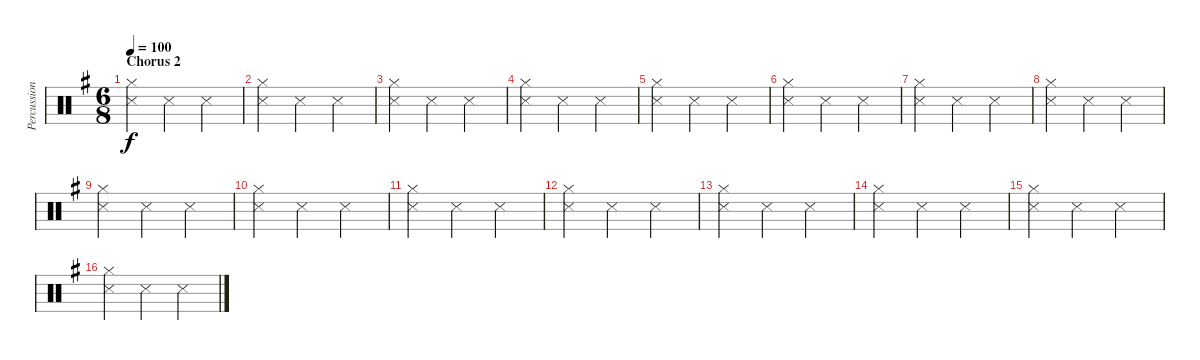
\track ("Percussion" "Percussion") {mute instrument percussion}
\staff {score}
\articulation defaults
\ts (6 8)
\section ("" "Chorus 2")
\tempo 100
\clef neutral
\ks g
("Hi-Hat (closed)" "Snare (side stick) 3").4{dy f} "Snare (side stick) 3".4 "Snare (side stick) 3".4 |
("Hi-Hat (closed)" "Snare (side stick) 3").4 "Snare (side stick) 3".4 "Snare (side stick) 3".4 |
("Hi-Hat (closed)" "Snare (side stick) 3").4 "Snare (side stick) 3".4 "Snare (side stick) 3".4 |
("Hi-Hat (closed)" "Snare (side stick) 3").4 "Snare (side stick) 3".4 "Snare (side stick) 3".4 |
("Hi-Hat (closed)" "Snare (side stick) 3").4 "Snare (side stick) 3".4 "Snare (side stick) 3".4 |
("Hi-Hat (closed)" "Snare (side stick) 3").4 "Snare (side stick) 3".4 "Snare (side stick) 3".4 |
("Hi-Hat (closed)" "Snare (side stick) 3").4 "Snare (side stick) 3".4 "Snare (side stick) 3".4 |
("Hi-Hat (closed)" "Snare (side stick) 3").4 "Snare (side stick) 3".4 "Snare (side stick) 3".4 |
("Hi-Hat (closed)" "Snare (side stick) 3").4 "Snare (side stick) 3".4 "Snare (side stick) 3".4 |
("Hi-Hat (closed)" "Snare (side stick) 3").4 "Snare (side stick) 3".4 "Snare (side stick) 3".4 |
("Hi-Hat (closed)" "Snare (side stick) 3").4 "Snare (side stick) 3".4 "Snare (side stick) 3".4 |
("Hi-Hat (closed)" "Snare (side stick) 3").4 "Snare (side stick) 3".4 "Snare (side stick) 3".4 |
("Hi-Hat (closed)" "Snare (side stick) 3").4 "Snare (side stick) 3".4 "Snare (side stick) 3".4 |
("Hi-Hat (closed)" "Snare (side stick) 3").4 "Snare (side stick) 3".4 "Snare (side stick) 3".4 |
("Hi-Hat (closed)" "Snare (side stick) 3").4 "Snare (side stick) 3".4 "Snare (side stick) 3".4 |
("Hi-Hat (closed)" "Snare (side stick) 3").4 "Snare (side stick) 3".4 "Snare (side stick) 3".4
